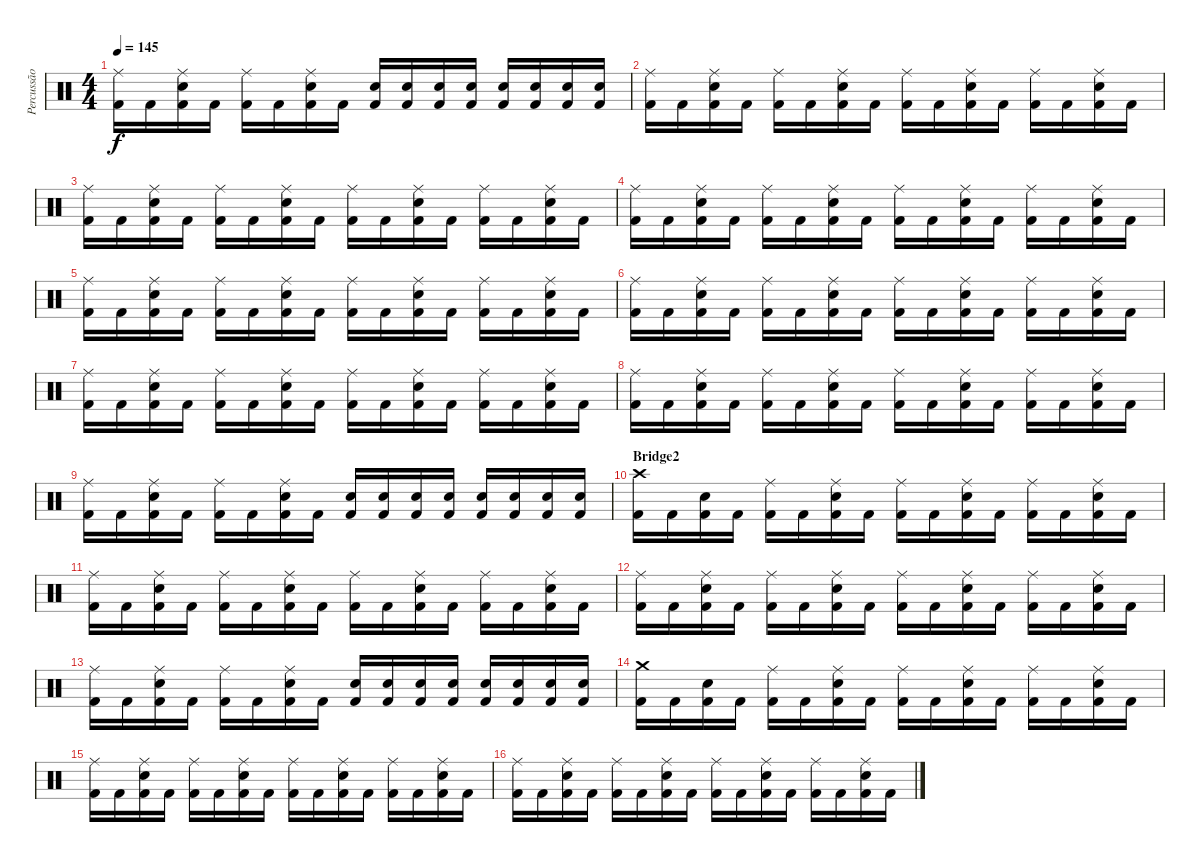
\track ("Percussão" "Percussão") {instrument percussion}
\staff {score}
\articulation defaults
\ts (4 4)
\tempo 145
\clef neutral
\ks c
("Kick (hit) 2" "Ride (middle)").16{dy f} "Kick (hit) 2".16 ("Kick (hit) 2" "Snare (hit) 2" "Ride (middle)").16 "Kick (hit) 2".16 ("Kick (hit) 2" "Ride (middle)").16 "Kick (hit) 2".16 ("Kick (hit) 2" "Snare (hit) 2" "Ride (middle)").16 "Kick (hit) 2".16 ("Kick (hit) 2" "Snare (hit) 2").16 ("Kick (hit) 2" "Snare (hit) 2").16 ("Kick (hit) 2" "Snare (hit) 2").16 ("Kick (hit) 2" "Snare (hit) 2").16 ("Kick (hit) 2" "Snare (hit) 2").16 ("Kick (hit) 2" "Snare (hit) 2").16 ("Kick (hit) 2" "Snare (hit) 2").16 ("Kick (hit) 2" "Snare (hit) 2").16 |
("Kick (hit) 2" "Ride (middle)").16 "Kick (hit) 2".16 ("Kick (hit) 2" "Snare (hit) 2" "Ride (middle)").16 "Kick (hit) 2".16 ("Kick (hit) 2" "Ride (middle)").16 "Kick (hit) 2".16 ("Kick (hit) 2" "Snare (hit) 2" "Ride (middle)").16 "Kick (hit) 2".16 ("Kick (hit) 2" "Ride (middle)").16 "Kick (hit) 2".16 ("Kick (hit) 2" "Snare (hit) 2" "Ride (middle)").16 "Kick (hit) 2".16 ("Kick (hit) 2" "Ride (middle)").16 "Kick (hit) 2".16 ("Kick (hit) 2" "Snare (hit) 2" "Ride (middle)").16 "Kick (hit) 2".16 |
("Kick (hit) 2" "Ride (middle)").16 "Kick (hit) 2".16 ("Kick (hit) 2" "Snare (hit) 2" "Ride (middle)").16 "Kick (hit) 2".16 ("Kick (hit) 2" "Ride (middle)").16 "Kick (hit) 2".16 ("Kick (hit) 2" "Snare (hit) 2" "Ride (middle)").16 "Kick (hit) 2".16 ("Kick (hit) 2" "Ride (middle)").16 "Kick (hit) 2".16 ("Kick (hit) 2" "Snare (hit) 2" "Ride (middle)").16 "Kick (hit) 2".16 ("Kick (hit) 2" "Ride (middle)").16 "Kick (hit) 2".16 ("Kick (hit) 2" "Snare (hit) 2" "Ride (middle)").16 "Kick (hit) 2".16 |
("Kick (hit) 2" "Ride (middle)").16 "Kick (hit) 2".16 ("Kick (hit) 2" "Snare (hit) 2" "Ride (middle)").16 "Kick (hit) 2".16 ("Kick (hit) 2" "Ride (middle)").16 "Kick (hit) 2".16 ("Kick (hit) 2" "Snare (hit) 2" "Ride (middle)").16 "Kick (hit) 2".16 ("Kick (hit) 2" "Ride (middle)").16 "Kick (hit) 2".16 ("Kick (hit) 2" "Snare (hit) 2" "Ride (middle)").16 "Kick (hit) 2".16 ("Kick (hit) 2" "Ride (middle)").16 "Kick (hit) 2".16 ("Kick (hit) 2" "Snare (hit) 2" "Ride (middle)").16 "Kick (hit) 2".16 |
("Kick (hit) 2" "Ride (middle)").16 "Kick (hit) 2".16 ("Kick (hit) 2" "Snare (hit) 2" "Ride (middle)").16 "Kick (hit) 2".16 ("Kick (hit) 2" "Ride (middle)").16 "Kick (hit) 2".16 ("Kick (hit) 2" "Snare (hit) 2" "Ride (middle)").16 "Kick (hit) 2".16 ("Kick (hit) 2" "Ride (middle)").16 "Kick (hit) 2".16 ("Kick (hit) 2" "Snare (hit) 2" "Ride (middle)").16 "Kick (hit) 2".16 ("Kick (hit) 2" "Ride (middle)").16 "Kick (hit) 2".16 ("Kick (hit) 2" "Snare (hit) 2" "Ride (middle)").16 "Kick (hit) 2".16 |
("Kick (hit) 2" "Ride (middle)").16 "Kick (hit) 2".16 ("Kick (hit) 2" "Snare (hit) 2" "Ride (middle)").16 "Kick (hit) 2".16 ("Kick (hit) 2" "Ride (middle)").16 "Kick (hit) 2".16 ("Kick (hit) 2" "Snare (hit) 2" "Ride (middle)").16 "Kick (hit) 2".16 ("Kick (hit) 2" "Ride (middle)").16 "Kick (hit) 2".16 ("Kick (hit) 2" "Snare (hit) 2" "Ride (middle)").16 "Kick (hit) 2".16 ("Kick (hit) 2" "Ride (middle)").16 "Kick (hit) 2".16 ("Kick (hit) 2" "Snare (hit) 2" "Ride (middle)").16 "Kick (hit) 2".16 |
("Kick (hit) 2" "Ride (middle)").16 "Kick (hit) 2".16 ("Kick (hit) 2" "Snare (hit) 2" "Ride (middle)").16 "Kick (hit) 2".16 ("Kick (hit) 2" "Ride (middle)").16 "Kick (hit) 2".16 ("Kick (hit) 2" "Snare (hit) 2" "Ride (middle)").16 "Kick (hit) 2".16 ("Kick (hit) 2" "Ride (middle)").16 "Kick (hit) 2".16 ("Kick (hit) 2" "Snare (hit) 2" "Ride (middle)").16 "Kick (hit) 2".16 ("Kick (hit) 2" "Ride (middle)").16 "Kick (hit) 2".16 ("Kick (hit) 2" "Snare (hit) 2" "Ride (middle)").16 "Kick (hit) 2".16 |
("Kick (hit) 2" "Ride (middle)").16 "Kick (hit) 2".16 ("Kick (hit) 2" "Snare (hit) 2" "Ride (middle)").16 "Kick (hit) 2".16 ("Kick (hit) 2" "Ride (middle)").16 "Kick (hit) 2".16 ("Kick (hit) 2" "Snare (hit) 2" "Ride (middle)").16 "Kick (hit) 2".16 ("Kick (hit) 2" "Ride (middle)").16 "Kick (hit) 2".16 ("Kick (hit) 2" "Snare (hit) 2" "Ride (middle)").16 "Kick (hit) 2".16 ("Kick (hit) 2" "Ride (middle)").16 "Kick (hit) 2".16 ("Kick (hit) 2" "Snare (hit) 2" "Ride (middle)").16 "Kick (hit) 2".16 |
("Kick (hit) 2" "Ride (middle)").16 "Kick (hit) 2".16 ("Kick (hit) 2" "Snare (hit) 2" "Ride (middle)").16 "Kick (hit) 2".16 ("Kick (hit) 2" "Ride (middle)").16 "Kick (hit) 2".16 ("Kick (hit) 2" "Snare (hit) 2" "Ride (middle)").16 "Kick (hit) 2".16 ("Kick (hit) 2" "Snare (hit) 2").16 ("Kick (hit) 2" "Snare (hit) 2").16 ("Kick (hit) 2" "Snare (hit) 2").16 ("Kick (hit) 2" "Snare (hit) 2").16 ("Kick (hit) 2" "Snare (hit) 2").16 ("Kick (hit) 2" "Snare (hit) 2").16 ("Kick (hit) 2" "Snare (hit) 2").16 ("Kick (hit) 2" "Snare (hit) 2").16 |
\section ("" "Bridge2")
("Kick (hit) 2" "Crash high (hit)").16 "Kick (hit) 2".16 ("Kick (hit) 2" "Snare (hit) 2").16 "Kick (hit) 2".16 ("Kick (hit) 2" "Ride (middle)").16 "Kick (hit) 2".16 ("Kick (hit) 2" "Snare (hit) 2" "Ride (middle)").16 "Kick (hit) 2".16 ("Kick (hit) 2" "Ride (middle)").16 "Kick (hit) 2".16 ("Kick (hit) 2" "Snare (hit) 2" "Ride (middle)").16 "Kick (hit) 2".16 ("Kick (hit) 2" "Ride (middle)").16 "Kick (hit) 2".16 ("Kick (hit) 2" "Snare (hit) 2" "Ride (middle)").16 "Kick (hit) 2".16 |
("Kick (hit) 2" "Ride (middle)").16 "Kick (hit) 2".16 ("Kick (hit) 2" "Snare (hit) 2" "Ride (middle)").16 "Kick (hit) 2".16 ("Kick (hit) 2" "Ride (middle)").16 "Kick (hit) 2".16 ("Kick (hit) 2" "Snare (hit) 2" "Ride (middle)").16 "Kick (hit) 2".16 ("Kick (hit) 2" "Ride (middle)").16 "Kick (hit) 2".16 ("Kick (hit) 2" "Snare (hit) 2" "Ride (middle)").16 "Kick (hit) 2".16 ("Kick (hit) 2" "Ride (middle)").16 "Kick (hit) 2".16 ("Kick (hit) 2" "Snare (hit) 2" "Ride (middle)").16 "Kick (hit) 2".16 |
("Kick (hit) 2" "Ride (middle)").16 "Kick (hit) 2".16 ("Kick (hit) 2" "Snare (hit) 2" "Ride (middle)").16 "Kick (hit) 2".16 ("Kick (hit) 2" "Ride (middle)").16 "Kick (hit) 2".16 ("Kick (hit) 2" "Snare (hit) 2" "Ride (middle)").16 "Kick (hit) 2".16 ("Kick (hit) 2" "Ride (middle)").16 "Kick (hit) 2".16 ("Kick (hit) 2" "Snare (hit) 2" "Ride (middle)").16 "Kick (hit) 2".16 ("Kick (hit) 2" "Ride (middle)").16 "Kick (hit) 2".16 ("Kick (hit) 2" "Snare (hit) 2" "Ride (middle)").16 "Kick (hit) 2".16 |
("Kick (hit) 2" "Ride (middle)").16 "Kick (hit) 2".16 ("Kick (hit) 2" "Snare (hit) 2" "Ride (middle)").16 "Kick (hit) 2".16 ("Kick (hit) 2" "Ride (middle)").16 "Kick (hit) 2".16 ("Kick (hit) 2" "Snare (hit) 2" "Ride (middle)").16 "Kick (hit) 2".16 ("Kick (hit) 2" "Snare (hit) 2").16 ("Kick (hit) 2" "Snare (hit) 2").16 ("Kick (hit) 2" "Snare (hit) 2").16 ("Kick (hit) 2" "Snare (hit) 2").16 ("Kick (hit) 2" "Snare (hit) 2").16 ("Kick (hit) 2" "Snare (hit) 2").16 ("Kick (hit) 2" "Snare (hit) 2").16 ("Kick (hit) 2" "Snare (hit) 2").16 |
("Kick (hit) 2" "Crash medium (hit)").16 "Kick (hit) 2".16 ("Kick (hit) 2" "Snare (hit) 2").16 "Kick (hit) 2".16 ("Kick (hit) 2" "Ride (middle)").16 "Kick (hit) 2".16 ("Kick (hit) 2" "Snare (hit) 2" "Ride (middle)").16 "Kick (hit) 2".16 ("Kick (hit) 2" "Ride (middle)").16 "Kick (hit) 2".16 ("Kick (hit) 2" "Snare (hit) 2" "Ride (middle)").16 "Kick (hit) 2".16 ("Kick (hit) 2" "Ride (middle)").16 "Kick (hit) 2".16 ("Kick (hit) 2" "Snare (hit) 2" "Ride (middle)").16 "Kick (hit) 2".16 |
("Kick (hit) 2" "Ride (middle)").16 "Kick (hit) 2".16 ("Kick (hit) 2" "Snare (hit) 2" "Ride (middle)").16 "Kick (hit) 2".16 ("Kick (hit) 2" "Ride (middle)").16 "Kick (hit) 2".16 ("Kick (hit) 2" "Snare (hit) 2" "Ride (middle)").16 "Kick (hit) 2".16 ("Kick (hit) 2" "Ride (middle)").16 "Kick (hit) 2".16 ("Kick (hit) 2" "Snare (hit) 2" "Ride (middle)").16 "Kick (hit) 2".16 ("Kick (hit) 2" "Ride (middle)").16 "Kick (hit) 2".16 ("Kick (hit) 2" "Snare (hit) 2" "Ride (middle)").16 "Kick (hit) 2".16 |
("Kick (hit) 2" "Ride (middle)").16 "Kick (hit) 2".16 ("Kick (hit) 2" "Snare (hit) 2" "Ride (middle)").16 "Kick (hit) 2".16 ("Kick (hit) 2" "Ride (middle)").16 "Kick (hit) 2".16 ("Kick (hit) 2" "Snare (hit) 2" "Ride (middle)").16 "Kick (hit) 2".16 ("Kick (hit) 2" "Ride (middle)").16 "Kick (hit) 2".16 ("Kick (hit) 2" "Snare (hit) 2" "Ride (middle)").16 "Kick (hit) 2".16 ("Kick (hit) 2" "Ride (middle)").16 "Kick (hit) 2".16 ("Kick (hit) 2" "Snare (hit) 2" "Ride (middle)").16 "Kick (hit) 2".16
